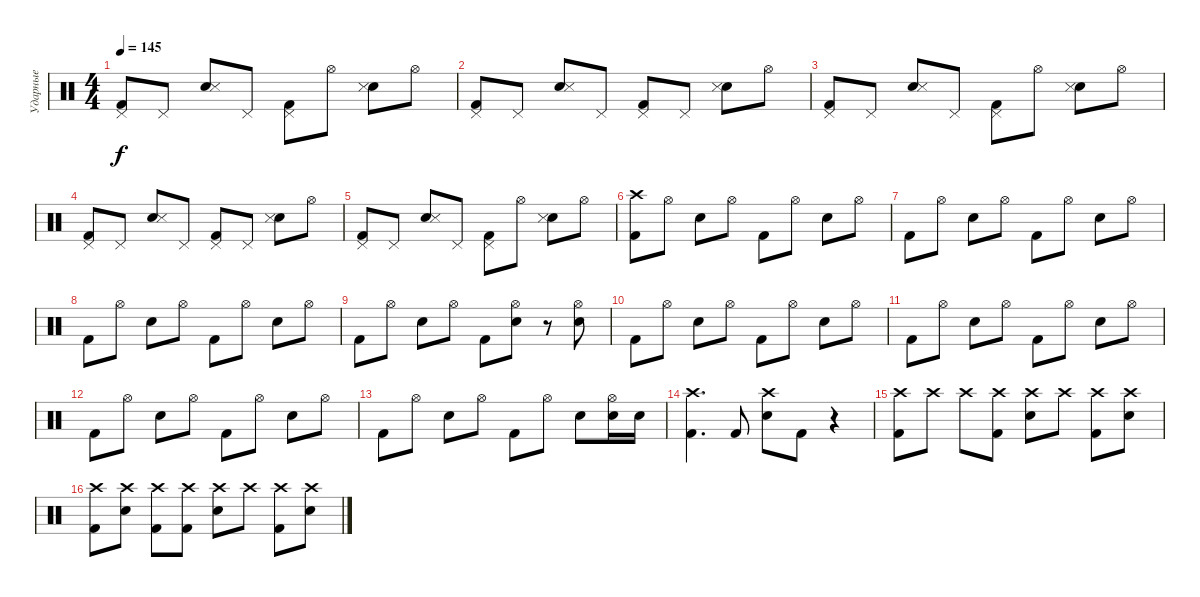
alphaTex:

\track ("Ударные" "Ударные") {instrument percussion}
\staff {score}
\articulation defaults
\ts (4 4)
\tempo 145
\clef neutral
\ks c
("Pedal Hi-Hat (hit)" "Kick (hit) 2").8{dy f} "Pedal Hi-Hat (hit)".8 ("Electric Snare (hit)" "Snare (side stick) 3").8 "Pedal Hi-Hat (hit)".8 ("Pedal Hi-Hat (hit)" "Kick (hit) 2").8 "Hi-Hat (open)".8 ("Electric Snare (hit)" "Snare (side stick) 3").8 "Hi-Hat (open)".8 |
("Pedal Hi-Hat (hit)" "Kick (hit) 2").8 "Pedal Hi-Hat (hit)".8 ("Electric Snare (hit)" "Snare (side stick) 3").8 "Pedal Hi-Hat (hit)".8 ("Pedal Hi-Hat (hit)" "Kick (hit) 2").8 "Pedal Hi-Hat (hit)".8 ("Electric Snare (hit)" "Snare (side stick) 3").8 "Hi-Hat (open)".8 |
("Pedal Hi-Hat (hit)" "Kick (hit) 2").8 "Pedal Hi-Hat (hit)".8 ("Electric Snare (hit)" "Snare (side stick) 3").8 "Pedal Hi-Hat (hit)".8 ("Pedal Hi-Hat (hit)" "Kick (hit) 2").8 "Hi-Hat (open)".8 ("Electric Snare (hit)" "Snare (side stick) 3").8 "Hi-Hat (open)".8 |
("Pedal Hi-Hat (hit)" "Kick (hit) 2").8 "Pedal Hi-Hat (hit)".8 ("Electric Snare (hit)" "Snare (side stick) 3").8 "Pedal Hi-Hat (hit)".8 ("Pedal Hi-Hat (hit)" "Kick (hit) 2").8 "Pedal Hi-Hat (hit)".8 ("Electric Snare (hit)" "Snare (side stick) 3").8 "Hi-Hat (open)".8 |
("Pedal Hi-Hat (hit)" "Kick (hit) 2").8 "Pedal Hi-Hat (hit)".8 ("Electric Snare (hit)" "Snare (side stick) 3").8 "Pedal Hi-Hat (hit)".8 ("Pedal Hi-Hat (hit)" "Kick (hit) 2").8 "Hi-Hat (open)".8 ("Electric Snare (hit)" "Snare (side stick) 3").8 "Hi-Hat (open)".8 |
("Crash high (hit)" "Kick (hit) 2").8 "Hi-Hat (open)".8 "Electric Snare (hit)".8 "Hi-Hat (open)".8 "Kick (hit) 2".8 "Hi-Hat (open)".8 "Electric Snare (hit)".8 "Hi-Hat (open)".8 |
"Kick (hit) 2".8 "Hi-Hat (open)".8 "Electric Snare (hit)".8 "Hi-Hat (open)".8 "Kick (hit) 2".8 "Hi-Hat (open)".8 "Electric Snare (hit)".8 "Hi-Hat (open)".8 |
"Kick (hit) 2".8 "Hi-Hat (open)".8 "Electric Snare (hit)".8 "Hi-Hat (open)".8 "Kick (hit) 2".8 "Hi-Hat (open)".8 "Electric Snare (hit)".8 "Hi-Hat (open)".8 |
"Kick (hit) 2".8 "Hi-Hat (open)".8 "Electric Snare (hit)".8 "Hi-Hat (open)".8 "Kick (hit) 2".8 ("Hi-Hat (open)" "Electric Snare (hit)").8 r.8 ("Hi-Hat (open)" "Electric Snare (hit)").8 |
"Kick (hit) 2".8 "Hi-Hat (open)".8 "Electric Snare (hit)".8 "Hi-Hat (open)".8 "Kick (hit) 2".8 "Hi-Hat (open)".8 "Electric Snare (hit)".8 "Hi-Hat (open)".8 |
"Kick (hit) 2".8 "Hi-Hat (open)".8 "Electric Snare (hit)".8 "Hi-Hat (open)".8 "Kick (hit) 2".8 "Hi-Hat (open)".8 "Electric Snare (hit)".8 "Hi-Hat (open)".8 |
"Kick (hit) 2".8 "Hi-Hat (open)".8 "Electric Snare (hit)".8 "Hi-Hat (open)".8 "Kick (hit) 2".8 "Hi-Hat (open)".8 "Electric Snare (hit)".8 "Hi-Hat (open)".8 |
"Kick (hit) 2".8 "Hi-Hat (open)".8 "Electric Snare (hit)".8 "Hi-Hat (open)".8 "Kick (hit) 2".8 "Hi-Hat (open)".8 "Electric Snare (hit)".8 ("Hi-Hat (open)" "Electric Snare (hit)").16 "Electric Snare (hit)".16 |
("Crash high (hit)" "Kick (hit) 2").4{d} "Kick (hit) 2".8 ("Crash high (hit)" "Electric Snare (hit)").8 "Kick (hit) 2".8 r.4 |
("Crash high (hit)" "Kick (hit) 2").8 "Crash high (hit)".8 "Crash high (hit)".8 ("Crash high (hit)" "Kick (hit) 2").8 ("Crash high (hit)" "Electric Snare (hit)").8 "Crash high (hit)".8 ("Crash high (hit)" "Kick (hit) 2").8 ("Crash high (hit)" "Electric Snare (hit)").8 |
("Crash high (hit)" "Kick (hit) 2").8 ("Crash high (hit)" "Electric Snare (hit)").8 ("Crash high (hit)" "Kick (hit) 2").8 ("Crash high (hit)" "Kick (hit) 2").8 ("Crash high (hit)" "Electric Snare (hit)").8 "Crash high (hit)".8 ("Crash high (hit)" "Kick (hit) 2").8 ("Crash high (hit)" "Electric Snare (hit)").8
